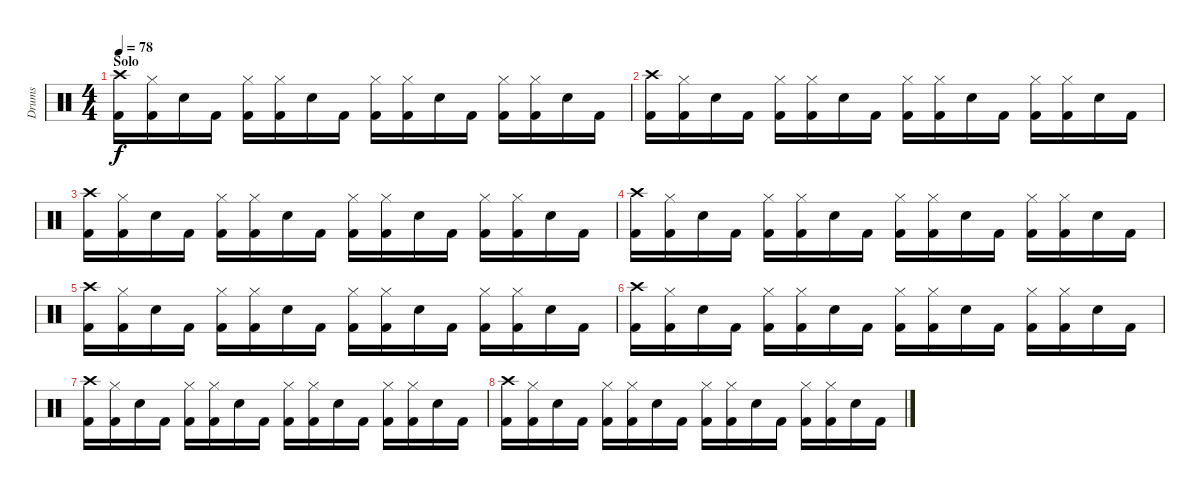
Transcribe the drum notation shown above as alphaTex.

\track ("Drums" "Drums") {instrument percussion}
\staff {score}
\articulation defaults
\ts (4 4)
\section ("" "Solo")
\tempo 78
\clef neutral
\ks c
("Crash high (hit)" "Kick (hit) 2").16{dy f} ("Hi-Hat (closed)" "Kick (hit) 2").16 "Electric Snare (hit)".16 "Kick (hit) 2".16 ("Hi-Hat (closed)" "Kick (hit) 2").16 ("Hi-Hat (closed)" "Kick (hit) 2").16 "Electric Snare (hit)".16 "Kick (hit) 2".16 ("Hi-Hat (closed)" "Kick (hit) 2").16 ("Hi-Hat (closed)" "Kick (hit) 2").16 "Electric Snare (hit)".16 "Kick (hit) 2".16 ("Hi-Hat (closed)" "Kick (hit) 2").16 ("Hi-Hat (closed)" "Kick (hit) 2").16 "Electric Snare (hit)".16 "Kick (hit) 2".16 |
("Crash high (hit)" "Kick (hit) 2").16 ("Hi-Hat (closed)" "Kick (hit) 2").16 "Electric Snare (hit)".16 "Kick (hit) 2".16 ("Hi-Hat (closed)" "Kick (hit) 2").16 ("Hi-Hat (closed)" "Kick (hit) 2").16 "Electric Snare (hit)".16 "Kick (hit) 2".16 ("Hi-Hat (closed)" "Kick (hit) 2").16 ("Hi-Hat (closed)" "Kick (hit) 2").16 "Electric Snare (hit)".16 "Kick (hit) 2".16 ("Hi-Hat (closed)" "Kick (hit) 2").16 ("Hi-Hat (closed)" "Kick (hit) 2").16 "Electric Snare (hit)".16 "Kick (hit) 2".16 |
("Crash high (hit)" "Kick (hit) 2").16 ("Hi-Hat (closed)" "Kick (hit) 2").16 "Electric Snare (hit)".16 "Kick (hit) 2".16 ("Hi-Hat (closed)" "Kick (hit) 2").16 ("Hi-Hat (closed)" "Kick (hit) 2").16 "Electric Snare (hit)".16 "Kick (hit) 2".16 ("Hi-Hat (closed)" "Kick (hit) 2").16 ("Hi-Hat (closed)" "Kick (hit) 2").16 "Electric Snare (hit)".16 "Kick (hit) 2".16 ("Hi-Hat (closed)" "Kick (hit) 2").16 ("Hi-Hat (closed)" "Kick (hit) 2").16 "Electric Snare (hit)".16 "Kick (hit) 2".16 |
("Crash high (hit)" "Kick (hit) 2").16 ("Hi-Hat (closed)" "Kick (hit) 2").16 "Electric Snare (hit)".16 "Kick (hit) 2".16 ("Hi-Hat (closed)" "Kick (hit) 2").16 ("Hi-Hat (closed)" "Kick (hit) 2").16 "Electric Snare (hit)".16 "Kick (hit) 2".16 ("Hi-Hat (closed)" "Kick (hit) 2").16 ("Hi-Hat (closed)" "Kick (hit) 2").16 "Electric Snare (hit)".16 "Kick (hit) 2".16 ("Hi-Hat (closed)" "Kick (hit) 2").16 ("Hi-Hat (closed)" "Kick (hit) 2").16 "Electric Snare (hit)".16 "Kick (hit) 2".16 |
("Crash high (hit)" "Kick (hit) 2").16 ("Hi-Hat (closed)" "Kick (hit) 2").16 "Electric Snare (hit)".16 "Kick (hit) 2".16 ("Hi-Hat (closed)" "Kick (hit) 2").16 ("Hi-Hat (closed)" "Kick (hit) 2").16 "Electric Snare (hit)".16 "Kick (hit) 2".16 ("Hi-Hat (closed)" "Kick (hit) 2").16 ("Hi-Hat (closed)" "Kick (hit) 2").16 "Electric Snare (hit)".16 "Kick (hit) 2".16 ("Hi-Hat (closed)" "Kick (hit) 2").16 ("Hi-Hat (closed)" "Kick (hit) 2").16 "Electric Snare (hit)".16 "Kick (hit) 2".16 |
("Crash high (hit)" "Kick (hit) 2").16 ("Hi-Hat (closed)" "Kick (hit) 2").16 "Electric Snare (hit)".16 "Kick (hit) 2".16 ("Hi-Hat (closed)" "Kick (hit) 2").16 ("Hi-Hat (closed)" "Kick (hit) 2").16 "Electric Snare (hit)".16 "Kick (hit) 2".16 ("Hi-Hat (closed)" "Kick (hit) 2").16 ("Hi-Hat (closed)" "Kick (hit) 2").16 "Electric Snare (hit)".16 "Kick (hit) 2".16 ("Hi-Hat (closed)" "Kick (hit) 2").16 ("Hi-Hat (closed)" "Kick (hit) 2").16 "Electric Snare (hit)".16 "Kick (hit) 2".16 |
("Crash high (hit)" "Kick (hit) 2").16 ("Hi-Hat (closed)" "Kick (hit) 2").16 "Electric Snare (hit)".16 "Kick (hit) 2".16 ("Hi-Hat (closed)" "Kick (hit) 2").16 ("Hi-Hat (closed)" "Kick (hit) 2").16 "Electric Snare (hit)".16 "Kick (hit) 2".16 ("Hi-Hat (closed)" "Kick (hit) 2").16 ("Hi-Hat (closed)" "Kick (hit) 2").16 "Electric Snare (hit)".16 "Kick (hit) 2".16 ("Hi-Hat (closed)" "Kick (hit) 2").16 ("Hi-Hat (closed)" "Kick (hit) 2").16 "Electric Snare (hit)".16 "Kick (hit) 2".16 |
("Crash high (hit)" "Kick (hit) 2").16 ("Hi-Hat (closed)" "Kick (hit) 2").16 "Electric Snare (hit)".16 "Kick (hit) 2".16 ("Hi-Hat (closed)" "Kick (hit) 2").16 ("Hi-Hat (closed)" "Kick (hit) 2").16 "Electric Snare (hit)".16 "Kick (hit) 2".16 ("Hi-Hat (closed)" "Kick (hit) 2").16 ("Hi-Hat (closed)" "Kick (hit) 2").16 "Electric Snare (hit)".16 "Kick (hit) 2".16 ("Hi-Hat (closed)" "Kick (hit) 2").16 ("Hi-Hat (closed)" "Kick (hit) 2").16 "Electric Snare (hit)".16 "Kick (hit) 2".16
